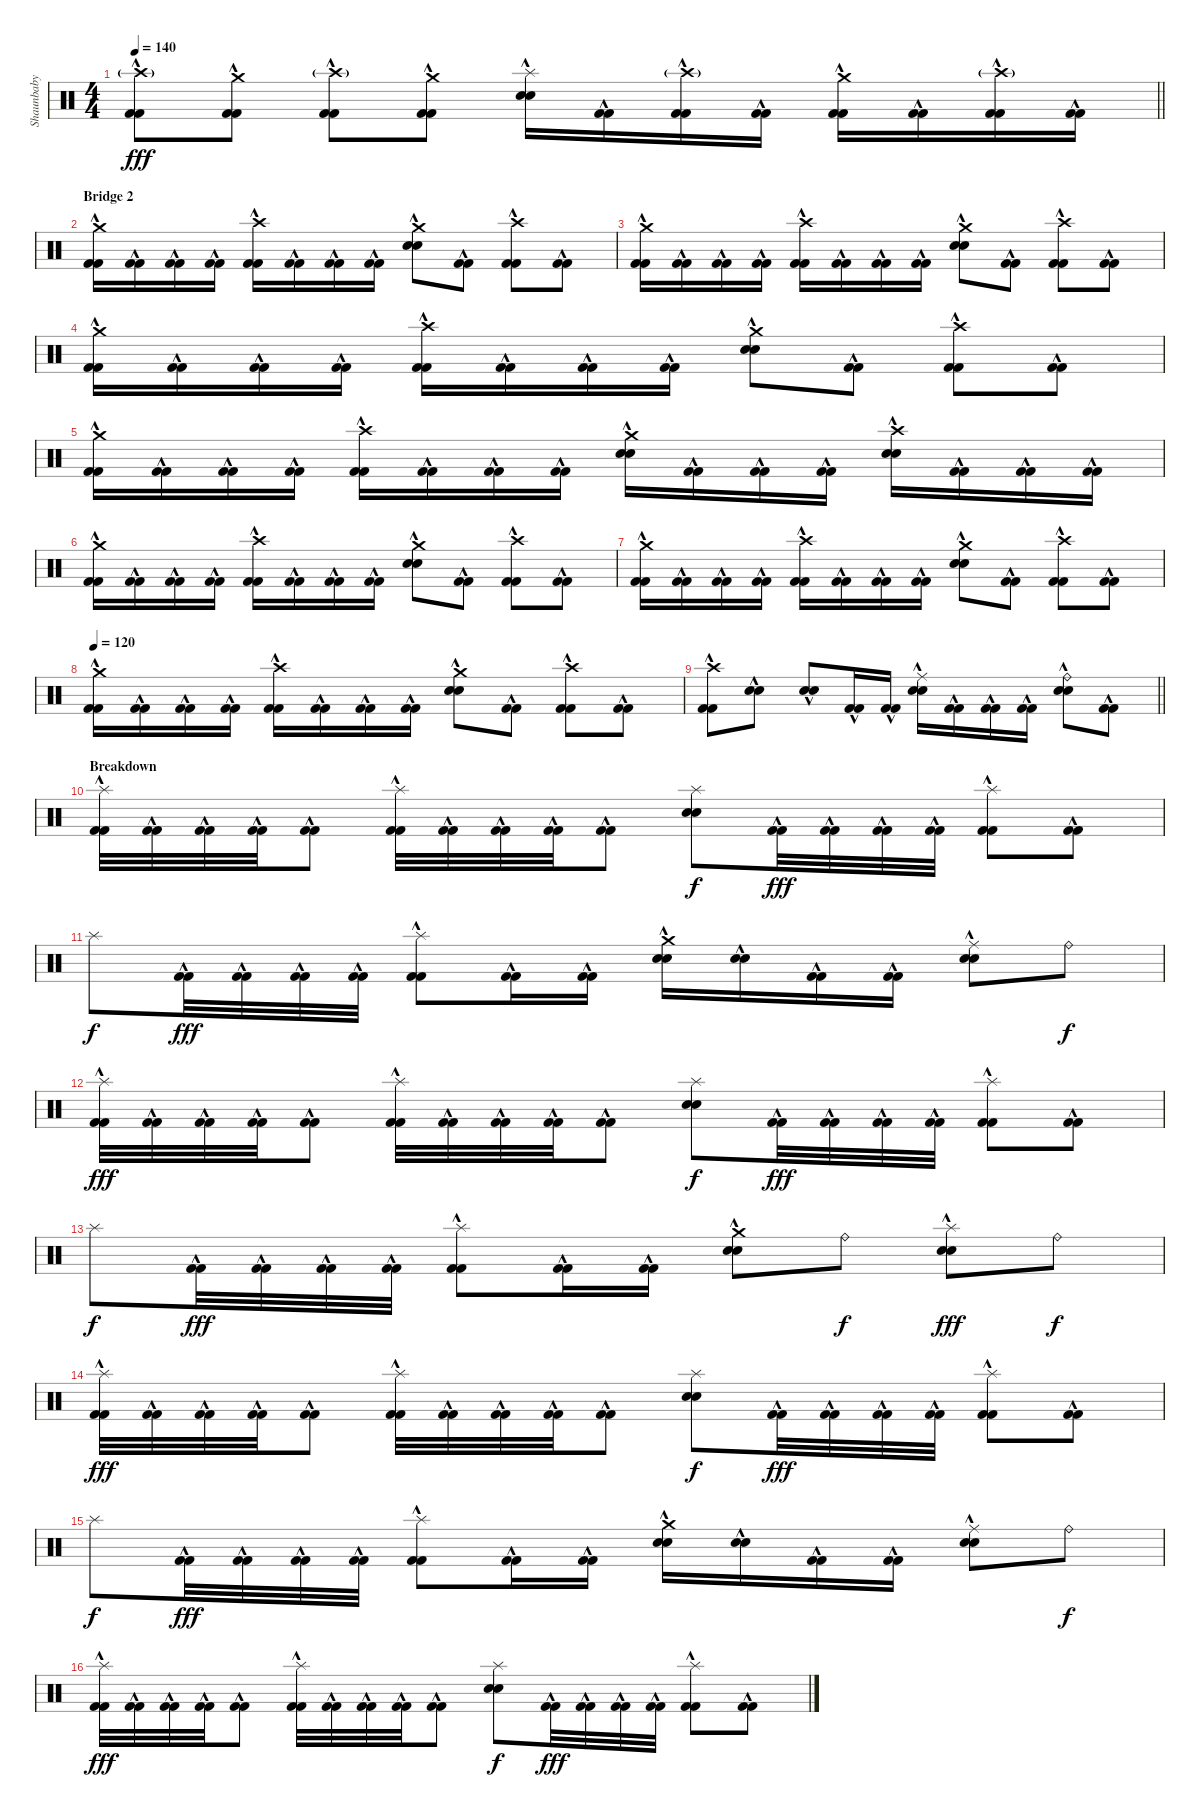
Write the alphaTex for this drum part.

\track ("Shaunbaby" "Shaunbaby") {instrument percussion}
\staff {score}
\articulation defaults
\ts (4 4)
\tempo 140
\clef neutral
\barLineRight lightlight
\ks c
("Crash high (hit)"{g} "Kick (hit) 2"{hac} "Kick (hit) 2"{hac}).8{dy fff} ("Crash medium (hit)" "Kick (hit) 2"{hac} "Kick (hit) 2"{hac}).8 ("Crash high (hit)"{g} "Kick (hit) 2"{hac} "Kick (hit) 2"{hac}).8 ("Crash medium (hit)" "Kick (hit) 2"{hac} "Kick (hit) 2"{hac}).8 ("Splash (hit)" "Electric Snare (hit)"{hac} "Electric Snare (hit)"{hac}).16 ("Kick (hit) 2"{hac} "Kick (hit) 2"{hac}).16 ("Crash high (hit)"{g} "Kick (hit) 2"{hac} "Kick (hit) 2"{hac}).16 ("Kick (hit) 2"{hac} "Kick (hit) 2"{hac}).16 ("Crash medium (hit)" "Kick (hit) 2"{hac} "Kick (hit) 2"{hac}).16 ("Kick (hit) 2"{hac} "Kick (hit) 2"{hac}).16 ("Crash high (hit)"{g} "Kick (hit) 2"{hac} "Kick (hit) 2"{hac}).16 ("Kick (hit) 2"{hac} "Kick (hit) 2"{hac}).16 |
\section ("" "Bridge 2")
("Crash medium (hit)" "Kick (hit) 2"{hac} "Kick (hit) 2"{hac}).16 ("Kick (hit) 2"{hac} "Kick (hit) 2"{hac}).16 ("Kick (hit) 2"{hac} "Kick (hit) 2"{hac}).16 ("Kick (hit) 2"{hac} "Kick (hit) 2"{hac}).16 ("Crash high (hit)" "Kick (hit) 2"{hac} "Kick (hit) 2"{hac}).16 ("Kick (hit) 2"{hac} "Kick (hit) 2"{hac}).16 ("Kick (hit) 2"{hac} "Kick (hit) 2"{hac}).16 ("Kick (hit) 2"{hac} "Kick (hit) 2"{hac}).16 ("Crash medium (hit)" "Electric Snare (hit)"{hac} "Electric Snare (hit)"{hac}).8 ("Kick (hit) 2"{hac} "Kick (hit) 2"{hac}).8 ("Crash high (hit)" "Kick (hit) 2"{hac} "Kick (hit) 2"{hac}).8 ("Kick (hit) 2"{hac} "Kick (hit) 2"{hac}).8 |
("Crash medium (hit)" "Kick (hit) 2"{hac} "Kick (hit) 2"{hac}).16 ("Kick (hit) 2"{hac} "Kick (hit) 2"{hac}).16 ("Kick (hit) 2"{hac} "Kick (hit) 2"{hac}).16 ("Kick (hit) 2"{hac} "Kick (hit) 2"{hac}).16 ("Crash high (hit)" "Kick (hit) 2"{hac} "Kick (hit) 2"{hac}).16 ("Kick (hit) 2"{hac} "Kick (hit) 2"{hac}).16 ("Kick (hit) 2"{hac} "Kick (hit) 2"{hac}).16 ("Kick (hit) 2"{hac} "Kick (hit) 2"{hac}).16 ("Crash medium (hit)" "Electric Snare (hit)"{hac} "Electric Snare (hit)"{hac}).8 ("Kick (hit) 2"{hac} "Kick (hit) 2"{hac}).8 ("Crash high (hit)" "Kick (hit) 2"{hac} "Kick (hit) 2"{hac}).8 ("Kick (hit) 2"{hac} "Kick (hit) 2"{hac}).8 |
("Crash medium (hit)" "Kick (hit) 2"{hac} "Kick (hit) 2"{hac}).16 ("Kick (hit) 2"{hac} "Kick (hit) 2"{hac}).16 ("Kick (hit) 2"{hac} "Kick (hit) 2"{hac}).16 ("Kick (hit) 2"{hac} "Kick (hit) 2"{hac}).16 ("Crash high (hit)" "Kick (hit) 2"{hac} "Kick (hit) 2"{hac}).16 ("Kick (hit) 2"{hac} "Kick (hit) 2"{hac}).16 ("Kick (hit) 2"{hac} "Kick (hit) 2"{hac}).16 ("Kick (hit) 2"{hac} "Kick (hit) 2"{hac}).16 ("Crash medium (hit)" "Electric Snare (hit)"{hac} "Electric Snare (hit)"{hac}).8 ("Kick (hit) 2"{hac} "Kick (hit) 2"{hac}).8 ("Crash high (hit)" "Kick (hit) 2"{hac} "Kick (hit) 2"{hac}).8 ("Kick (hit) 2"{hac} "Kick (hit) 2"{hac}).8 |
("Crash medium (hit)" "Kick (hit) 2"{hac} "Kick (hit) 2"{hac}).16 ("Kick (hit) 2"{hac} "Kick (hit) 2"{hac}).16 ("Kick (hit) 2"{hac} "Kick (hit) 2"{hac}).16 ("Kick (hit) 2"{hac} "Kick (hit) 2"{hac}).16 ("Crash high (hit)" "Kick (hit) 2"{hac} "Kick (hit) 2"{hac}).16 ("Kick (hit) 2"{hac} "Kick (hit) 2"{hac}).16 ("Kick (hit) 2"{hac} "Kick (hit) 2"{hac}).16 ("Kick (hit) 2"{hac} "Kick (hit) 2"{hac}).16 ("Crash medium (hit)" "Electric Snare (hit)"{hac} "Electric Snare (hit)"{hac}).16 ("Kick (hit) 2"{hac} "Kick (hit) 2"{hac}).16 ("Kick (hit) 2"{hac} "Kick (hit) 2"{hac}).16 ("Kick (hit) 2"{hac} "Kick (hit) 2"{hac}).16 ("Crash high (hit)" "Electric Snare (hit)"{hac} "Electric Snare (hit)"{hac}).16 ("Kick (hit) 2"{hac} "Kick (hit) 2"{hac}).16 ("Kick (hit) 2"{hac} "Kick (hit) 2"{hac}).16 ("Kick (hit) 2"{hac} "Kick (hit) 2"{hac}).16 |
("Crash medium (hit)" "Kick (hit) 2"{hac} "Kick (hit) 2"{hac}).16 ("Kick (hit) 2"{hac} "Kick (hit) 2"{hac}).16 ("Kick (hit) 2"{hac} "Kick (hit) 2"{hac}).16 ("Kick (hit) 2"{hac} "Kick (hit) 2"{hac}).16 ("Crash high (hit)" "Kick (hit) 2"{hac} "Kick (hit) 2"{hac}).16 ("Kick (hit) 2"{hac} "Kick (hit) 2"{hac}).16 ("Kick (hit) 2"{hac} "Kick (hit) 2"{hac}).16 ("Kick (hit) 2"{hac} "Kick (hit) 2"{hac}).16 ("Crash medium (hit)" "Electric Snare (hit)"{hac} "Electric Snare (hit)"{hac}).8 ("Kick (hit) 2"{hac} "Kick (hit) 2"{hac}).8 ("Crash high (hit)" "Kick (hit) 2"{hac} "Kick (hit) 2"{hac}).8 ("Kick (hit) 2"{hac} "Kick (hit) 2"{hac}).8 |
("Crash medium (hit)" "Kick (hit) 2"{hac} "Kick (hit) 2"{hac}).16 ("Kick (hit) 2"{hac} "Kick (hit) 2"{hac}).16 ("Kick (hit) 2"{hac} "Kick (hit) 2"{hac}).16 ("Kick (hit) 2"{hac} "Kick (hit) 2"{hac}).16 ("Crash high (hit)" "Kick (hit) 2"{hac} "Kick (hit) 2"{hac}).16 ("Kick (hit) 2"{hac} "Kick (hit) 2"{hac}).16 ("Kick (hit) 2"{hac} "Kick (hit) 2"{hac}).16 ("Kick (hit) 2"{hac} "Kick (hit) 2"{hac}).16 ("Crash medium (hit)" "Electric Snare (hit)"{hac} "Electric Snare (hit)"{hac}).8 ("Kick (hit) 2"{hac} "Kick (hit) 2"{hac}).8 ("Crash high (hit)" "Kick (hit) 2"{hac} "Kick (hit) 2"{hac}).8 ("Kick (hit) 2"{hac} "Kick (hit) 2"{hac}).8 |
\tempo 120
("Crash medium (hit)" "Kick (hit) 2"{hac} "Kick (hit) 2"{hac}).16 ("Kick (hit) 2"{hac} "Kick (hit) 2"{hac}).16 ("Kick (hit) 2"{hac} "Kick (hit) 2"{hac}).16 ("Kick (hit) 2"{hac} "Kick (hit) 2"{hac}).16 ("Crash high (hit)" "Kick (hit) 2"{hac} "Kick (hit) 2"{hac}).16 ("Kick (hit) 2"{hac} "Kick (hit) 2"{hac}).16 ("Kick (hit) 2"{hac} "Kick (hit) 2"{hac}).16 ("Kick (hit) 2"{hac} "Kick (hit) 2"{hac}).16 ("Crash medium (hit)" "Electric Snare (hit)"{hac} "Electric Snare (hit)"{hac}).8 ("Kick (hit) 2"{hac} "Kick (hit) 2"{hac}).8 ("Crash high (hit)" "Kick (hit) 2"{hac} "Kick (hit) 2"{hac}).8 ("Kick (hit) 2"{hac} "Kick (hit) 2"{hac}).8 |
\barLineRight lightlight
("Crash high (hit)" "Kick (hit) 2"{hac} "Kick (hit) 2"{hac}).8 ("Electric Snare (hit)"{hac} "Electric Snare (hit)"{hac}).8 ("Electric Snare (hit)"{hac} "Electric Snare (hit)"{hac}).8 ("Kick (hit) 2"{hac} "Kick (hit) 2"{hac}).16 ("Kick (hit) 2"{hac} "Kick (hit) 2"{hac}).16 ("Ride (middle)" "Electric Snare (hit)"{hac} "Electric Snare (hit)"{hac}).16 ("Kick (hit) 2"{hac} "Kick (hit) 2"{hac}).16 ("Kick (hit) 2"{hac} "Kick (hit) 2"{hac}).16 ("Kick (hit) 2"{hac} "Kick (hit) 2"{hac}).16 ("Ride (bell)" "Electric Snare (hit)"{hac} "Electric Snare (hit)"{hac}).8 ("Kick (hit) 2"{hac} "Kick (hit) 2"{hac}).8 |
\section ("" "Breakdown")
("Splash (hit)" "Kick (hit) 2"{hac} "Kick (hit) 2"{hac}).32 ("Kick (hit) 2"{hac} "Kick (hit) 2"{hac}).32 ("Kick (hit) 2"{hac} "Kick (hit) 2"{hac}).32 ("Kick (hit) 2"{hac} "Kick (hit) 2"{hac}).32 ("Kick (hit) 2"{hac} "Kick (hit) 2"{hac}).8 ("Splash (hit)" "Kick (hit) 2"{hac} "Kick (hit) 2"{hac}).32 ("Kick (hit) 2"{hac} "Kick (hit) 2"{hac}).32 ("Kick (hit) 2"{hac} "Kick (hit) 2"{hac}).32 ("Kick (hit) 2"{hac} "Kick (hit) 2"{hac}).32 ("Kick (hit) 2"{hac} "Kick (hit) 2"{hac}).8 ("Splash (hit)" "Electric Snare (hit)" "Electric Snare (hit)").8{dy f} ("Kick (hit) 2"{hac} "Kick (hit) 2"{hac}).32{dy fff} ("Kick (hit) 2"{hac} "Kick (hit) 2"{hac}).32 ("Kick (hit) 2"{hac} "Kick (hit) 2"{hac}).32 ("Kick (hit) 2"{hac} "Kick (hit) 2"{hac}).32 ("Splash (hit)" "Kick (hit) 2"{hac} "Kick (hit) 2"{hac}).8 ("Kick (hit) 2"{hac} "Kick (hit) 2"{hac}).8 |
"Splash (hit)".8{dy f} ("Kick (hit) 2"{hac} "Kick (hit) 2"{hac}).32{dy fff} ("Kick (hit) 2"{hac} "Kick (hit) 2"{hac}).32 ("Kick (hit) 2"{hac} "Kick (hit) 2"{hac}).32 ("Kick (hit) 2"{hac} "Kick (hit) 2"{hac}).32 ("Splash (hit)" "Kick (hit) 2"{hac} "Kick (hit) 2"{hac}).8 ("Kick (hit) 2"{hac} "Kick (hit) 2"{hac}).16 ("Kick (hit) 2"{hac} "Kick (hit) 2"{hac}).16 ("Crash medium (hit)" "Electric Snare (hit)"{hac} "Electric Snare (hit)"{hac}).16 ("Electric Snare (hit)"{hac} "Electric Snare (hit)"{hac}).16 ("Kick (hit) 2"{hac} "Kick (hit) 2"{hac}).16 ("Kick (hit) 2"{hac} "Kick (hit) 2"{hac}).16 ("Ride (middle)" "Electric Snare (hit)"{hac} "Electric Snare (hit)"{hac}).8 "Ride (bell)".8{dy f} |
("Splash (hit)" "Kick (hit) 2"{hac} "Kick (hit) 2"{hac}).32{dy fff} ("Kick (hit) 2"{hac} "Kick (hit) 2"{hac}).32 ("Kick (hit) 2"{hac} "Kick (hit) 2"{hac}).32 ("Kick (hit) 2"{hac} "Kick (hit) 2"{hac}).32 ("Kick (hit) 2"{hac} "Kick (hit) 2"{hac}).8 ("Splash (hit)" "Kick (hit) 2"{hac} "Kick (hit) 2"{hac}).32 ("Kick (hit) 2"{hac} "Kick (hit) 2"{hac}).32 ("Kick (hit) 2"{hac} "Kick (hit) 2"{hac}).32 ("Kick (hit) 2"{hac} "Kick (hit) 2"{hac}).32 ("Kick (hit) 2"{hac} "Kick (hit) 2"{hac}).8 ("Splash (hit)" "Electric Snare (hit)" "Electric Snare (hit)").8{dy f} ("Kick (hit) 2"{hac} "Kick (hit) 2"{hac}).32{dy fff} ("Kick (hit) 2"{hac} "Kick (hit) 2"{hac}).32 ("Kick (hit) 2"{hac} "Kick (hit) 2"{hac}).32 ("Kick (hit) 2"{hac} "Kick (hit) 2"{hac}).32 ("Splash (hit)" "Kick (hit) 2"{hac} "Kick (hit) 2"{hac}).8 ("Kick (hit) 2"{hac} "Kick (hit) 2"{hac}).8 |
"Splash (hit)".8{dy f} ("Kick (hit) 2"{hac} "Kick (hit) 2"{hac}).32{dy fff} ("Kick (hit) 2"{hac} "Kick (hit) 2"{hac}).32 ("Kick (hit) 2"{hac} "Kick (hit) 2"{hac}).32 ("Kick (hit) 2"{hac} "Kick (hit) 2"{hac}).32 ("Splash (hit)" "Kick (hit) 2"{hac} "Kick (hit) 2"{hac}).8 ("Kick (hit) 2"{hac} "Kick (hit) 2"{hac}).16 ("Kick (hit) 2"{hac} "Kick (hit) 2"{hac}).16 ("Crash medium (hit)" "Electric Snare (hit)"{hac} "Electric Snare (hit)"{hac}).8 "Ride (bell)".8{dy f} ("Splash (hit)" "Electric Snare (hit)"{hac} "Electric Snare (hit)"{hac}).8{dy fff} "Ride (bell)".8{dy f} |
("Splash (hit)" "Kick (hit) 2"{hac} "Kick (hit) 2"{hac}).32{dy fff} ("Kick (hit) 2"{hac} "Kick (hit) 2"{hac}).32 ("Kick (hit) 2"{hac} "Kick (hit) 2"{hac}).32 ("Kick (hit) 2"{hac} "Kick (hit) 2"{hac}).32 ("Kick (hit) 2"{hac} "Kick (hit) 2"{hac}).8 ("Splash (hit)" "Kick (hit) 2"{hac} "Kick (hit) 2"{hac}).32 ("Kick (hit) 2"{hac} "Kick (hit) 2"{hac}).32 ("Kick (hit) 2"{hac} "Kick (hit) 2"{hac}).32 ("Kick (hit) 2"{hac} "Kick (hit) 2"{hac}).32 ("Kick (hit) 2"{hac} "Kick (hit) 2"{hac}).8 ("Splash (hit)" "Electric Snare (hit)" "Electric Snare (hit)").8{dy f} ("Kick (hit) 2"{hac} "Kick (hit) 2"{hac}).32{dy fff} ("Kick (hit) 2"{hac} "Kick (hit) 2"{hac}).32 ("Kick (hit) 2"{hac} "Kick (hit) 2"{hac}).32 ("Kick (hit) 2"{hac} "Kick (hit) 2"{hac}).32 ("Splash (hit)" "Kick (hit) 2"{hac} "Kick (hit) 2"{hac}).8 ("Kick (hit) 2"{hac} "Kick (hit) 2"{hac}).8 |
"Splash (hit)".8{dy f} ("Kick (hit) 2"{hac} "Kick (hit) 2"{hac}).32{dy fff} ("Kick (hit) 2"{hac} "Kick (hit) 2"{hac}).32 ("Kick (hit) 2"{hac} "Kick (hit) 2"{hac}).32 ("Kick (hit) 2"{hac} "Kick (hit) 2"{hac}).32 ("Splash (hit)" "Kick (hit) 2"{hac} "Kick (hit) 2"{hac}).8 ("Kick (hit) 2"{hac} "Kick (hit) 2"{hac}).16 ("Kick (hit) 2"{hac} "Kick (hit) 2"{hac}).16 ("Crash medium (hit)" "Electric Snare (hit)"{hac} "Electric Snare (hit)"{hac}).16 ("Electric Snare (hit)"{hac} "Electric Snare (hit)"{hac}).16 ("Kick (hit) 2"{hac} "Kick (hit) 2"{hac}).16 ("Kick (hit) 2"{hac} "Kick (hit) 2"{hac}).16 ("Ride (middle)" "Electric Snare (hit)"{hac} "Electric Snare (hit)"{hac}).8 "Ride (bell)".8{dy f} |
("Splash (hit)" "Kick (hit) 2"{hac} "Kick (hit) 2"{hac}).32{dy fff} ("Kick (hit) 2"{hac} "Kick (hit) 2"{hac}).32 ("Kick (hit) 2"{hac} "Kick (hit) 2"{hac}).32 ("Kick (hit) 2"{hac} "Kick (hit) 2"{hac}).32 ("Kick (hit) 2"{hac} "Kick (hit) 2"{hac}).8 ("Splash (hit)" "Kick (hit) 2"{hac} "Kick (hit) 2"{hac}).32 ("Kick (hit) 2"{hac} "Kick (hit) 2"{hac}).32 ("Kick (hit) 2"{hac} "Kick (hit) 2"{hac}).32 ("Kick (hit) 2"{hac} "Kick (hit) 2"{hac}).32 ("Kick (hit) 2"{hac} "Kick (hit) 2"{hac}).8 ("Splash (hit)" "Electric Snare (hit)" "Electric Snare (hit)").8{dy f} ("Kick (hit) 2"{hac} "Kick (hit) 2"{hac}).32{dy fff} ("Kick (hit) 2"{hac} "Kick (hit) 2"{hac}).32 ("Kick (hit) 2"{hac} "Kick (hit) 2"{hac}).32 ("Kick (hit) 2"{hac} "Kick (hit) 2"{hac}).32 ("Splash (hit)" "Kick (hit) 2"{hac} "Kick (hit) 2"{hac}).8 ("Kick (hit) 2"{hac} "Kick (hit) 2"{hac}).8
